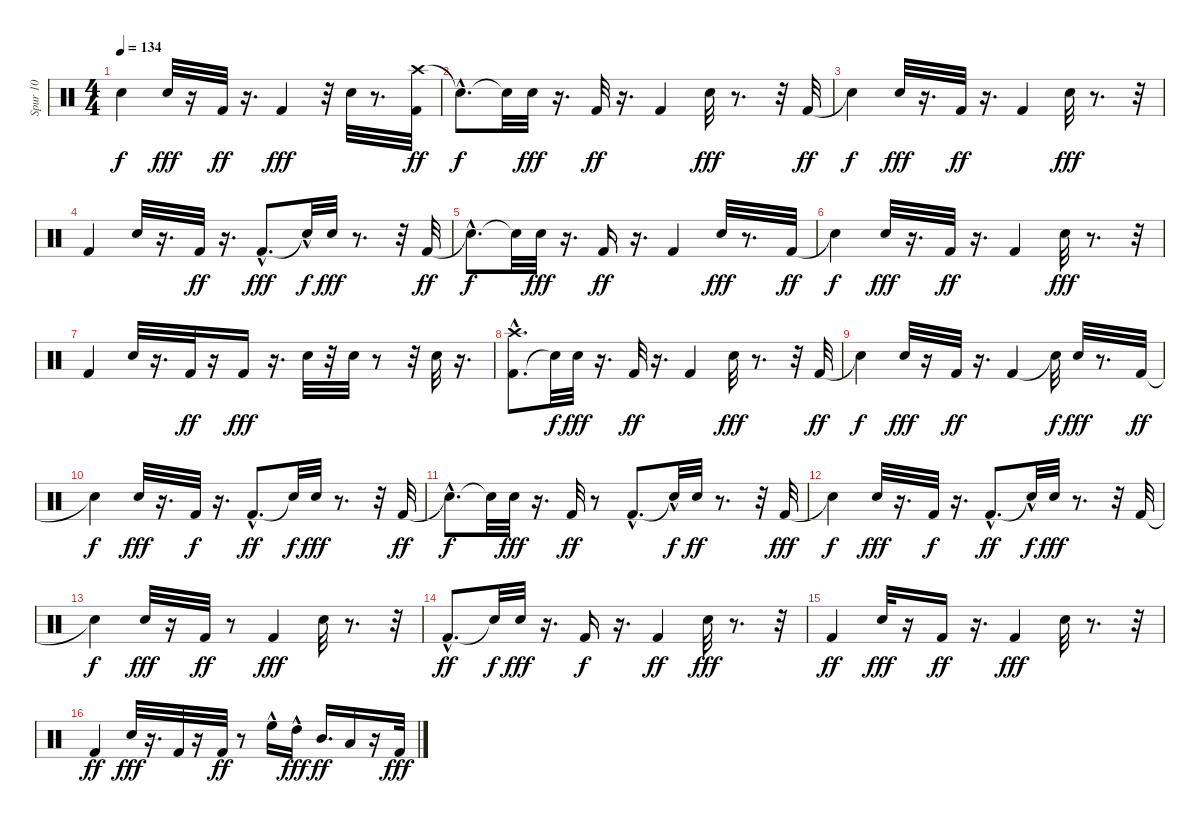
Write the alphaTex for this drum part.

\track ("Spur 10" "Spur 10") {instrument percussion}
\staff {score}
\articulation defaults
\ts (4 4)
\tempo 134
\clef neutral
\ks c "Snare (hit)"{t}.4{dy f} "Electric Snare (hit)".32{dy fff}
r.16 "Kick (hit) 2".32{dy ff} r.16{d} "Kick (hit) 2".4{dy fff} r.32 "Electric Snare (hit)".32 r.8{d} ("Crash high (hit)" "Kick (hit) 2").32{dy ff} |
"Snare (hit)"{hac t}.8{d dy f} "Snare (hit)"{t}.32 "Electric Snare (hit)".32{dy fff} r.16{d} "Kick (hit) 2".32{dy ff} r.16{d} "Kick (hit) 2".4 "Electric Snare (hit)".32{dy fff} r.8{d} r.32 "Kick (hit) 2".32{dy ff} |
"Snare (hit)"{t}.4{dy f} "Electric Snare (hit)".32{dy fff} r.16{d} "Kick (hit) 2".32{dy ff} r.16{d} "Kick (hit) 2".4 "Electric Snare (hit)".32{dy fff} r.8{d} r.32 |
"Kick (hit) 2".4 "Electric Snare (hit)".32 r.16{d} "Kick (hit) 2".32{dy ff} r.16{d} "Kick (hit) 2"{hac}.8{d dy fff} "Snare (hit)"{hac t}.32{dy f} "Electric Snare (hit)".32{dy fff} r.8{d} r.32 "Kick (hit) 2".32{dy ff} |
"Snare (hit)"{hac t}.8{d dy f} "Snare (hit)"{t}.32 "Electric Snare (hit)".32{dy fff} r.16{d} "Kick (hit) 2".16{dy ff} r.16{d} "Kick (hit) 2".4 "Electric Snare (hit)".32{dy fff} r.8{d} "Kick (hit) 2".32{dy ff} |
"Snare (hit)"{t}.4{dy f} "Electric Snare (hit)".32{dy fff} r.16{d} "Kick (hit) 2".32{dy ff} r.16{d} "Kick (hit) 2".4 "Electric Snare (hit)".32{dy fff} r.8{d} r.32 |
"Kick (hit) 2".4 "Electric Snare (hit)".32 r.16{d} "Kick (hit) 2".32{dy ff} r.16 "Kick (hit) 2".16{dy fff} r.16{d} "Electric Snare (hit)".32 r.32 "Electric Snare (hit)".32 r.8 r.32 "Electric Snare (hit)".32 r.16{d} |
("Kick (hit) 2"{hac} "Crash high (hit)").8{d} "Snare (hit)"{t}.32{dy f} "Electric Snare (hit)".32{dy fff} r.16{d} "Kick (hit) 2".32{dy ff} r.16{d} "Kick (hit) 2".4 "Electric Snare (hit)".32{dy fff} r.8{d} r.32 "Kick (hit) 2".32{dy ff} |
"Snare (hit)"{t}.4{dy f} "Electric Snare (hit)".32{dy fff} r.16 "Kick (hit) 2".32{dy ff} r.16{d} "Kick (hit) 2".4 "Snare (hit)"{t}.32{dy f} "Electric Snare (hit)".32{dy fff} r.8{d} "Kick (hit) 2".32{dy ff} |
"Snare (hit)"{t}.4{dy f} "Electric Snare (hit)".32{dy fff} r.16{d} "Kick (hit) 2".32{dy f} r.16{d} "Kick (hit) 2"{hac}.8{d dy ff} "Snare (hit)"{t}.32{dy f} "Electric Snare (hit)".32{dy fff} r.8{d} r.32 "Kick (hit) 2".32{dy ff} |
"Snare (hit)"{hac t}.8{d dy f} "Snare (hit)"{t}.32 "Electric Snare (hit)".32{dy fff} r.16{d} "Kick (hit) 2".32{dy ff} r.8 "Kick (hit) 2"{hac}.8{d} "Snare (hit)"{hac t}.32{dy f} "Electric Snare (hit)".32{dy ff} r.8{d} r.32 "Kick (hit) 2".32{dy fff} |
"Snare (hit)"{t}.4{dy f} "Electric Snare (hit)".32{dy fff} r.16{d} "Kick (hit) 2".32{dy f} r.16{d} "Kick (hit) 2"{hac}.8{d dy ff} "Snare (hit)"{hac t}.32{dy f} "Electric Snare (hit)".32{dy fff} r.8{d} r.32 "Kick (hit) 2".32 |
"Snare (hit)"{t}.4{dy f} "Electric Snare (hit)".32{dy fff} r.16 "Kick (hit) 2".32{dy ff} r.8 "Kick (hit) 2".4{dy fff} "Electric Snare (hit)".32 r.8{d} r.32 |
"Kick (hit) 2"{hac}.8{d dy ff} "Snare (hit)"{t}.32{dy f} "Electric Snare (hit)".32{dy fff} r.16{d} "Kick (hit) 2".16{dy f} r.16{d} "Kick (hit) 2".4{dy ff} "Electric Snare (hit)".32{dy fff} r.8{d} r.32 |
"Kick (hit) 2".4{dy ff} "Electric Snare (hit)".32{dy fff} r.16 "Kick (hit) 2".16{dy ff} r.16{d} "Kick (hit) 2".4{dy fff} "Electric Snare (hit)".32 r.8{d} r.32 |
"Kick (hit) 2".4{dy ff} "Electric Snare (hit)".32{dy fff} r.16{d} "Kick (hit) 2".32 r.16 "Kick (hit) 2".32{dy ff} r.8 "High Floor Tom (hit)"{hac}.16 "High Tom (hit)"{hac}.16{dy fff} "Mid Tom (hit)".16{d dy ff} "Low Tom (hit)".16 r.16 "Kick (hit) 2".32{dy fff}
